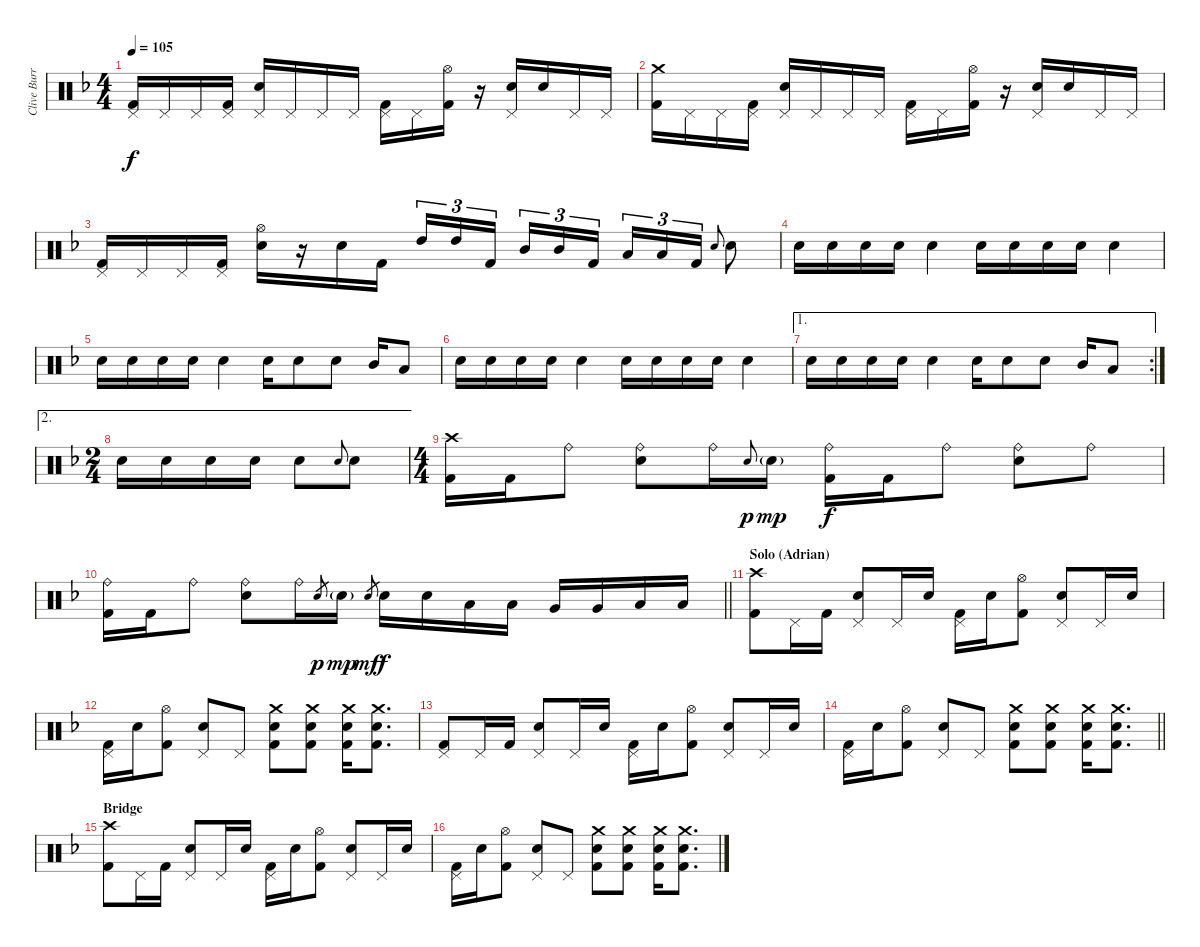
\track ("Clive Burr" "Clive Burr") {instrument percussion}
\staff {score}
\articulation defaults
\ts (4 4)
\tempo 105
\clef neutral
\ks dminor
("Pedal Hi-Hat (hit)" "Kick (hit) 2").16{dy f} "Pedal Hi-Hat (hit)".16 "Pedal Hi-Hat (hit)".16 ("Pedal Hi-Hat (hit)" "Kick (hit) 2").16 ("Pedal Hi-Hat (hit)" "Snare (hit) 2").16 "Pedal Hi-Hat (hit)".16 "Pedal Hi-Hat (hit)".16 "Pedal Hi-Hat (hit)".16 ("Pedal Hi-Hat (hit)" "Kick (hit) 2").16 "Pedal Hi-Hat (hit)".16 ("Hi-Hat (open)" "Kick (hit) 2").16 r.16 ("Pedal Hi-Hat (hit)" "Electric Snare (hit)").16 "Electric Snare (hit)".16 "Pedal Hi-Hat (hit)".16 "Pedal Hi-Hat (hit)".16 |
("Crash medium (hit)" "Kick (hit) 2").16 "Pedal Hi-Hat (hit)".16 "Pedal Hi-Hat (hit)".16 ("Pedal Hi-Hat (hit)" "Kick (hit) 2").16 ("Pedal Hi-Hat (hit)" "Snare (hit) 2").16 "Pedal Hi-Hat (hit)".16 "Pedal Hi-Hat (hit)".16 "Pedal Hi-Hat (hit)".16 ("Pedal Hi-Hat (hit)" "Kick (hit) 2").16 "Pedal Hi-Hat (hit)".16 ("Hi-Hat (open)" "Kick (hit) 2").16 r.16 ("Pedal Hi-Hat (hit)" "Electric Snare (hit)").16 "Electric Snare (hit)".16 "Pedal Hi-Hat (hit)".16 "Pedal Hi-Hat (hit)".16 |
("Pedal Hi-Hat (hit)" "Kick (hit) 2").16 "Pedal Hi-Hat (hit)".16 "Pedal Hi-Hat (hit)".16 ("Pedal Hi-Hat (hit)" "Kick (hit) 2").16 ("Hi-Hat (open)" "Snare (hit) 2").16 r.16 "Electric Snare (hit)".16 "Kick (hit) 2".16 "High Tom (hit)".16{tu (3 2)} "High Tom (hit)".16{tu (3 2)} "Kick (hit) 2".16{tu (3 2) beam splitsecondary} "Mid Tom (hit)".16{tu (3 2)} "Mid Tom (hit)".16{tu (3 2)} "Kick (hit) 2".16{tu (3 2)} "Low Tom (hit)".16{tu (3 2)} "Low Tom (hit)".16{tu (3 2)} "Kick (hit) 2".16{tu (3 2)} "Snare (hit) 2".8{gr onbeat} "Snare (hit) 2".8 |
"Electric Snare (hit)".16 "Electric Snare (hit)".16 "Electric Snare (hit)".16 "Electric Snare (hit)".16 "Electric Snare (hit)".4 "Electric Snare (hit)".16 "Electric Snare (hit)".16 "Electric Snare (hit)".16 "Electric Snare (hit)".16 "Electric Snare (hit)".4 |
"Electric Snare (hit)".16 "Electric Snare (hit)".16 "Electric Snare (hit)".16 "Electric Snare (hit)".16 "Electric Snare (hit)".4 "Electric Snare (hit)".16 "Electric Snare (hit)".8 "Electric Snare (hit)".8 "Mid Tom (hit)".16 "Low Tom (hit)".8 |
"Electric Snare (hit)".16 "Electric Snare (hit)".16 "Electric Snare (hit)".16 "Electric Snare (hit)".16 "Electric Snare (hit)".4 "Electric Snare (hit)".16 "Electric Snare (hit)".16 "Electric Snare (hit)".16 "Electric Snare (hit)".16 "Electric Snare (hit)".4 |
\ae 1
\rc 2 "Electric Snare (hit)".16 "Electric Snare (hit)".16 "Electric Snare (hit)".16 "Electric Snare (hit)".16 "Electric Snare (hit)".4 "Electric Snare (hit)".16 "Electric Snare (hit)".8 "Electric Snare (hit)".8 "Mid Tom (hit)".16 "Low Tom (hit)".8
|
\ae 2
\ts (2 4)
"Electric Snare (hit)".16 "Electric Snare (hit)".16 "Electric Snare (hit)".16 "Electric Snare (hit)".16 "Electric Snare (hit)".8 "Snare (hit) 2".8{gr onbeat} "Snare (hit) 2".8 |
\ts (4 4)
("Crash high (hit)" "Kick (hit) 2").16 "Kick (hit) 2".16 "Ride (bell)".8 ("Ride (bell)" "Snare (hit) 2").8 "Ride (bell)".16 "Electric Snare (hit)".8{gr onbeat dy p} "Electric Snare (hit)"{g}.16{dy mp} ("Ride (bell)" "Kick (hit) 2").16{dy f} "Kick (hit) 2".16 "Ride (bell)".8 ("Ride (bell)" "Snare (hit) 2").8 "Ride (bell)".8 |
\barLineRight lightlight
("Ride (bell)" "Kick (hit) 2").16 "Kick (hit) 2".16 "Ride (bell)".8 ("Ride (bell)" "Snare (hit) 2").8 "Ride (bell)".16 "Electric Snare (hit)".8{gr dy p} "Electric Snare (hit)"{g}.16{dy mp} "Electric Snare (hit)".8{gr dy mf} "Electric Snare (hit)".16{dy f} "Electric Snare (hit)".16 "Low Tom (hit)".16 "Low Tom (hit)".16 "Very Low Tom (hit)".16 "Very Low Tom (hit)".16 "Low Floor Tom (hit)".16 "Low Floor Tom (hit)".16 |
\section ("" "Solo (Adrian)")
("Crash high (hit)" "Kick (hit) 2").8 "Pedal Hi-Hat (hit)".16 "Kick (hit) 2".16 ("Pedal Hi-Hat (hit)" "Snare (hit) 2").8 "Pedal Hi-Hat (hit)".16 "Snare (hit) 2".16 ("Pedal Hi-Hat (hit)" "Kick (hit) 2").16 "Snare (hit) 2".16 ("Hi-Hat (open)" "Kick (hit) 2").8 ("Pedal Hi-Hat (hit)" "Snare (hit) 2").8 "Pedal Hi-Hat (hit)".16 "Snare (hit) 2".16 |
("Pedal Hi-Hat (hit)" "Kick (hit) 2").16 "Snare (hit) 2".16 ("Hi-Hat (open)" "Kick (hit) 2").8 ("Pedal Hi-Hat (hit)" "Snare (hit) 2").8 "Pedal Hi-Hat (hit)".8 ("Crash medium (hit)" "Snare (hit) 2" "Kick (hit) 2").8 ("Crash medium (hit)" "Snare (hit) 2" "Kick (hit) 2").8 ("Crash medium (hit)" "Snare (hit) 2" "Kick (hit) 2").16 ("Crash medium (hit)" "Snare (hit) 2" "Kick (hit) 2").8{d} |
("Pedal Hi-Hat (hit)" "Kick (hit) 2").8 "Pedal Hi-Hat (hit)".16 "Kick (hit) 2".16 ("Pedal Hi-Hat (hit)" "Snare (hit) 2").8 "Pedal Hi-Hat (hit)".16 "Snare (hit) 2".16 ("Pedal Hi-Hat (hit)" "Kick (hit) 2").16 "Snare (hit) 2".16 ("Hi-Hat (open)" "Kick (hit) 2").8 ("Pedal Hi-Hat (hit)" "Snare (hit) 2").8 "Pedal Hi-Hat (hit)".16 "Snare (hit) 2".16 |
\barLineRight lightlight
("Pedal Hi-Hat (hit)" "Kick (hit) 2").16 "Snare (hit) 2".16 ("Hi-Hat (open)" "Kick (hit) 2").8 ("Pedal Hi-Hat (hit)" "Snare (hit) 2").8 "Pedal Hi-Hat (hit)".8 ("Crash medium (hit)" "Snare (hit) 2" "Kick (hit) 2").8 ("Crash medium (hit)" "Snare (hit) 2" "Kick (hit) 2").8 ("Crash medium (hit)" "Snare (hit) 2" "Kick (hit) 2").16 ("Crash medium (hit)" "Snare (hit) 2" "Kick (hit) 2").8{d} |
\section ("" "Bridge")
("Crash high (hit)" "Kick (hit) 2").8 "Pedal Hi-Hat (hit)".16 "Kick (hit) 2".16 ("Pedal Hi-Hat (hit)" "Snare (hit) 2").8 "Pedal Hi-Hat (hit)".16 "Snare (hit) 2".16 ("Pedal Hi-Hat (hit)" "Kick (hit) 2").16 "Snare (hit) 2".16 ("Hi-Hat (open)" "Kick (hit) 2").8 ("Pedal Hi-Hat (hit)" "Snare (hit) 2").8 "Pedal Hi-Hat (hit)".16 "Snare (hit) 2".16 |
("Pedal Hi-Hat (hit)" "Kick (hit) 2").16 "Snare (hit) 2".16 ("Hi-Hat (open)" "Kick (hit) 2").8 ("Pedal Hi-Hat (hit)" "Snare (hit) 2").8 "Pedal Hi-Hat (hit)".8 ("Crash medium (hit)" "Snare (hit) 2" "Kick (hit) 2").8 ("Crash medium (hit)" "Snare (hit) 2" "Kick (hit) 2").8 ("Crash medium (hit)" "Snare (hit) 2" "Kick (hit) 2").16 ("Crash medium (hit)" "Snare (hit) 2" "Kick (hit) 2").8{d}
